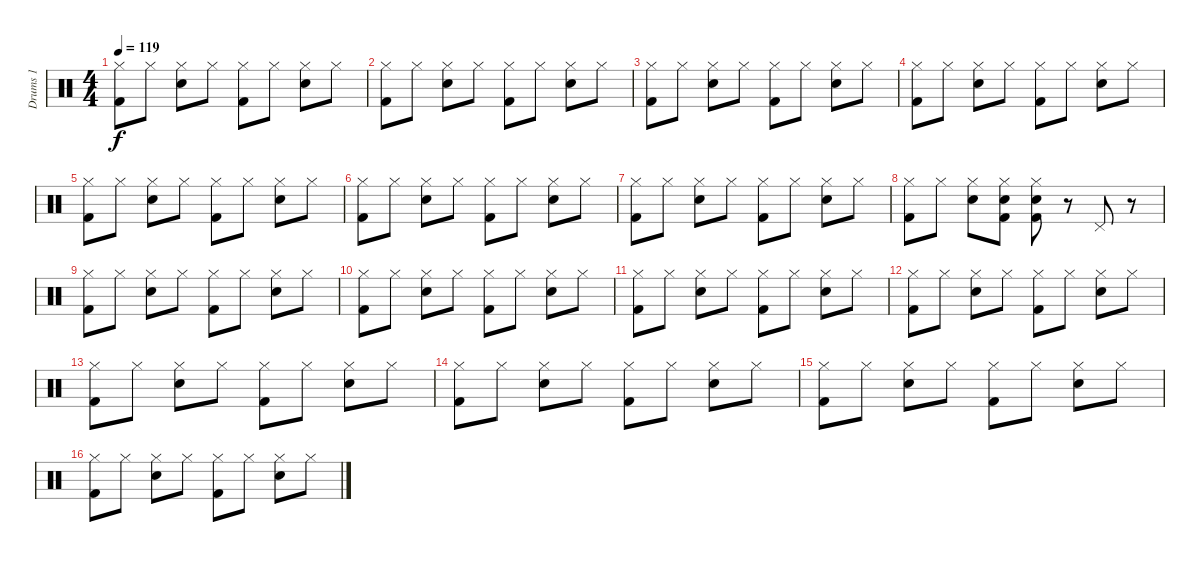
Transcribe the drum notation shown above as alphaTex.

\track ("Drums 1" "Drums 1") {instrument percussion}
\staff {score}
\articulation defaults
\ts (4 4)
\tempo 119
\clef neutral
\ks c
("Hi-Hat (closed)" "Kick (hit) 2").8{dy f} "Hi-Hat (closed)".8 ("Hi-Hat (closed)" "Electric Snare (hit)").8 "Hi-Hat (closed)".8 ("Hi-Hat (closed)" "Kick (hit) 2").8 "Hi-Hat (closed)".8 ("Hi-Hat (closed)" "Electric Snare (hit)").8 "Hi-Hat (closed)".8 |
("Hi-Hat (closed)" "Kick (hit) 2").8 "Hi-Hat (closed)".8 ("Hi-Hat (closed)" "Electric Snare (hit)").8 "Hi-Hat (closed)".8 ("Hi-Hat (closed)" "Kick (hit) 2").8 "Hi-Hat (closed)".8 ("Hi-Hat (closed)" "Electric Snare (hit)").8 "Hi-Hat (closed)".8 |
("Hi-Hat (closed)" "Kick (hit) 2").8 "Hi-Hat (closed)".8 ("Hi-Hat (closed)" "Electric Snare (hit)").8 "Hi-Hat (closed)".8 ("Hi-Hat (closed)" "Kick (hit) 2").8 "Hi-Hat (closed)".8 ("Hi-Hat (closed)" "Electric Snare (hit)").8 "Hi-Hat (closed)".8 |
("Hi-Hat (closed)" "Kick (hit) 2").8 "Hi-Hat (closed)".8 ("Hi-Hat (closed)" "Electric Snare (hit)").8 "Hi-Hat (closed)".8 ("Hi-Hat (closed)" "Kick (hit) 2").8 "Hi-Hat (closed)".8 ("Hi-Hat (closed)" "Electric Snare (hit)").8 "Hi-Hat (closed)".8 |
("Hi-Hat (closed)" "Kick (hit) 2").8 "Hi-Hat (closed)".8 ("Hi-Hat (closed)" "Electric Snare (hit)").8 "Hi-Hat (closed)".8 ("Hi-Hat (closed)" "Kick (hit) 2").8 "Hi-Hat (closed)".8 ("Hi-Hat (closed)" "Electric Snare (hit)").8 "Hi-Hat (closed)".8 |
("Hi-Hat (closed)" "Kick (hit) 2").8 "Hi-Hat (closed)".8 ("Hi-Hat (closed)" "Electric Snare (hit)").8 "Hi-Hat (closed)".8 ("Hi-Hat (closed)" "Kick (hit) 2").8 "Hi-Hat (closed)".8 ("Hi-Hat (closed)" "Electric Snare (hit)").8 "Hi-Hat (closed)".8 |
("Hi-Hat (closed)" "Kick (hit) 2").8 "Hi-Hat (closed)".8 ("Hi-Hat (closed)" "Electric Snare (hit)").8 "Hi-Hat (closed)".8 ("Hi-Hat (closed)" "Kick (hit) 2").8 "Hi-Hat (closed)".8 ("Hi-Hat (closed)" "Electric Snare (hit)").8 "Hi-Hat (closed)".8 |
("Hi-Hat (closed)" "Kick (hit) 2").8 "Hi-Hat (closed)".8 ("Hi-Hat (closed)" "Electric Snare (hit)").8 ("Hi-Hat (closed)" "Kick (hit) 2" "Electric Snare (hit)").8 ("Hi-Hat (closed)" "Kick (hit) 2" "Electric Snare (hit)").8 r.8 "Pedal Hi-Hat (hit)".8 r.8 |
("Hi-Hat (closed)" "Kick (hit) 2").8 "Hi-Hat (closed)".8 ("Hi-Hat (closed)" "Electric Snare (hit)").8 "Hi-Hat (closed)".8 ("Hi-Hat (closed)" "Kick (hit) 2").8 "Hi-Hat (closed)".8 ("Hi-Hat (closed)" "Electric Snare (hit)").8 "Hi-Hat (closed)".8 |
("Hi-Hat (closed)" "Kick (hit) 2").8 "Hi-Hat (closed)".8 ("Hi-Hat (closed)" "Electric Snare (hit)").8 "Hi-Hat (closed)".8 ("Hi-Hat (closed)" "Kick (hit) 2").8 "Hi-Hat (closed)".8 ("Hi-Hat (closed)" "Electric Snare (hit)").8 "Hi-Hat (closed)".8 |
("Hi-Hat (closed)" "Kick (hit) 2").8 "Hi-Hat (closed)".8 ("Hi-Hat (closed)" "Electric Snare (hit)").8 "Hi-Hat (closed)".8 ("Hi-Hat (closed)" "Kick (hit) 2").8 "Hi-Hat (closed)".8 ("Hi-Hat (closed)" "Electric Snare (hit)").8 "Hi-Hat (closed)".8 |
("Hi-Hat (closed)" "Kick (hit) 2").8 "Hi-Hat (closed)".8 ("Hi-Hat (closed)" "Electric Snare (hit)").8 "Hi-Hat (closed)".8 ("Hi-Hat (closed)" "Kick (hit) 2").8 "Hi-Hat (closed)".8 ("Hi-Hat (closed)" "Electric Snare (hit)").8 "Hi-Hat (closed)".8 |
("Hi-Hat (closed)" "Kick (hit) 2").8 "Hi-Hat (closed)".8 ("Hi-Hat (closed)" "Electric Snare (hit)").8 "Hi-Hat (closed)".8 ("Hi-Hat (closed)" "Kick (hit) 2").8 "Hi-Hat (closed)".8 ("Hi-Hat (closed)" "Electric Snare (hit)").8 "Hi-Hat (closed)".8 |
("Hi-Hat (closed)" "Kick (hit) 2").8 "Hi-Hat (closed)".8 ("Hi-Hat (closed)" "Electric Snare (hit)").8 "Hi-Hat (closed)".8 ("Hi-Hat (closed)" "Kick (hit) 2").8 "Hi-Hat (closed)".8 ("Hi-Hat (closed)" "Electric Snare (hit)").8 "Hi-Hat (closed)".8 |
("Hi-Hat (closed)" "Kick (hit) 2").8 "Hi-Hat (closed)".8 ("Hi-Hat (closed)" "Electric Snare (hit)").8 "Hi-Hat (closed)".8 ("Hi-Hat (closed)" "Kick (hit) 2").8 "Hi-Hat (closed)".8 ("Hi-Hat (closed)" "Electric Snare (hit)").8 "Hi-Hat (closed)".8 |
("Hi-Hat (closed)" "Kick (hit) 2").8 "Hi-Hat (closed)".8 ("Hi-Hat (closed)" "Electric Snare (hit)").8 "Hi-Hat (closed)".8 ("Hi-Hat (closed)" "Kick (hit) 2").8 "Hi-Hat (closed)".8 ("Hi-Hat (closed)" "Electric Snare (hit)").8 "Hi-Hat (closed)".8
